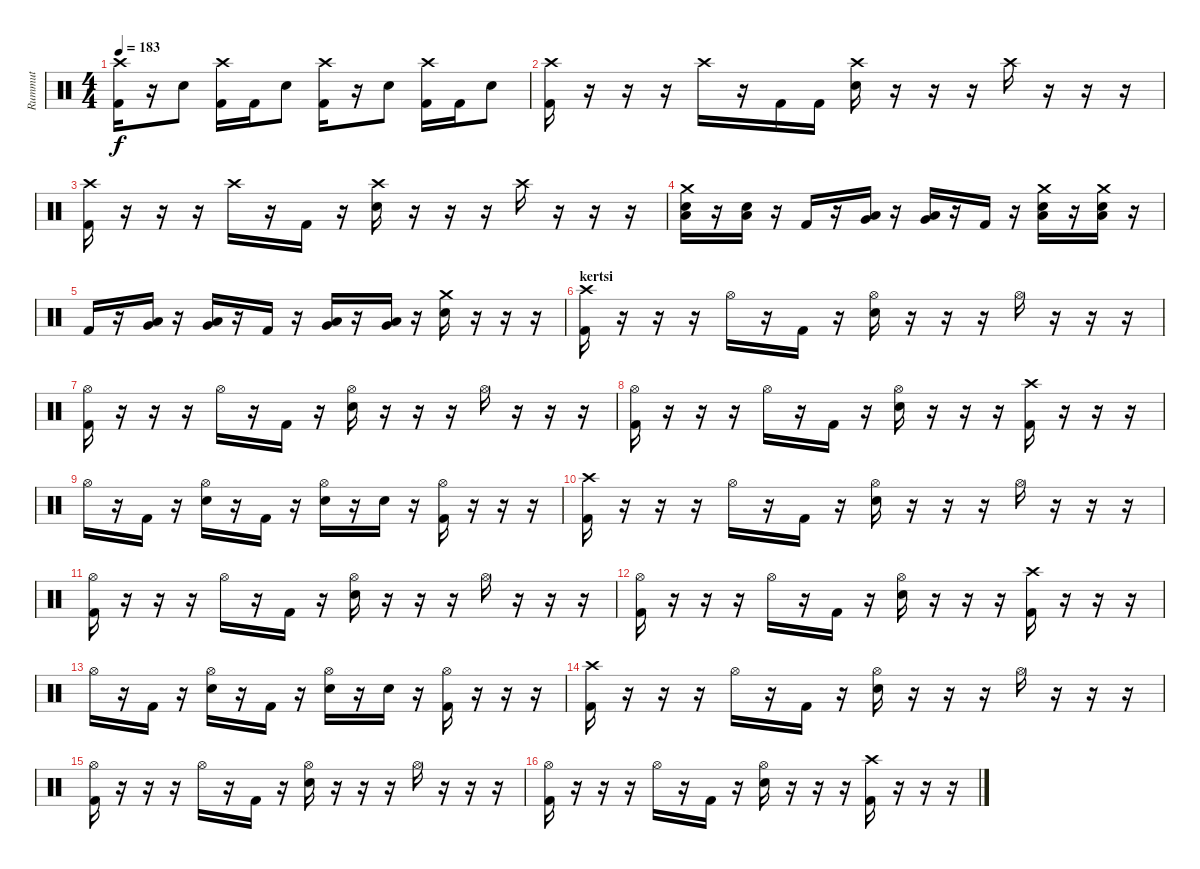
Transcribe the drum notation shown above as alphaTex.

\track ("Rummut" "Rummut") {instrument percussion}
\staff {score}
\articulation defaults
\ts (4 4)
\tempo 183
\clef neutral
\ks c
("Crash high (hit)" "Kick (hit) 2").16{dy f} r.16 "Electric Snare (hit)".8 ("Crash high (hit)" "Kick (hit) 2").16 "Kick (hit) 2".16 "Electric Snare (hit)".8 ("Crash high (hit)" "Kick (hit) 2").16 r.16 "Electric Snare (hit)".8 ("Crash high (hit)" "Kick (hit) 2").16 "Kick (hit) 2".16 "Electric Snare (hit)".8 |
("Crash high (hit)" "Kick (hit) 2").16 r.16 r.16 r.16 "Crash high (hit)".16 r.16 "Kick (hit) 2".16 "Kick (hit) 2".16 ("Crash high (hit)" "Electric Snare (hit)").16 r.16 r.16 r.16 "Crash high (hit)".16 r.16 r.16 r.16 |
("Crash high (hit)" "Kick (hit) 2").16 r.16 r.16 r.16 "Crash high (hit)".16 r.16 "Kick (hit) 2".16 r.16 ("Crash high (hit)" "Electric Snare (hit)").16 r.16 r.16 r.16 "Crash high (hit)".16 r.16 r.16 r.16 |
("Crash medium (hit)" "Low Tom (hit)" "Electric Snare (hit)").16 r.16 ("Low Tom (hit)" "Electric Snare (hit)").16 r.16 "Kick (hit) 2".16 r.16 ("Low Tom (hit)" "Very Low Tom (hit)").16 r.16 ("Low Tom (hit)" "Very Low Tom (hit)").16 r.16 "Kick (hit) 2".16 r.16 ("Crash medium (hit)" "Low Tom (hit)" "Electric Snare (hit)").16 r.16 ("Crash medium (hit)" "Low Tom (hit)" "Electric Snare (hit)").16 r.16 |
"Kick (hit) 2".16 r.16 ("Low Tom (hit)" "Very Low Tom (hit)").16 r.16 ("Low Tom (hit)" "Very Low Tom (hit)").16 r.16 "Kick (hit) 2".16 r.16 ("Very Low Tom (hit)" "Low Floor Tom (hit)").16 r.16 ("Very Low Tom (hit)" "Low Floor Tom (hit)").16 r.16 ("Crash medium (hit)" "Electric Snare (hit)").16 r.16 r.16 r.16 |
\section ("" "kertsi")
("Crash high (hit)" "Kick (hit) 2").16 r.16 r.16 r.16 "Hi-Hat (open)".16 r.16 "Kick (hit) 2".16 r.16 ("Hi-Hat (open)" "Electric Snare (hit)").16 r.16 r.16 r.16 "Hi-Hat (open)".16 r.16 r.16 r.16 |
("Hi-Hat (open)" "Kick (hit) 2").16 r.16 r.16 r.16 "Hi-Hat (open)".16 r.16 "Kick (hit) 2".16 r.16 ("Hi-Hat (open)" "Electric Snare (hit)").16 r.16 r.16 r.16 "Hi-Hat (open)".16 r.16 r.16 r.16 |
("Hi-Hat (open)" "Kick (hit) 2").16 r.16 r.16 r.16 "Hi-Hat (open)".16 r.16 "Kick (hit) 2".16 r.16 ("Hi-Hat (open)" "Electric Snare (hit)").16 r.16 r.16 r.16 ("Crash high (hit)" "Kick (hit) 2").16 r.16 r.16 r.16 |
"Hi-Hat (open)".16 r.16 "Kick (hit) 2".16 r.16 ("Hi-Hat (open)" "Electric Snare (hit)").16 r.16 "Kick (hit) 2".16 r.16 ("Hi-Hat (open)" "Electric Snare (hit)").16 r.16 "Electric Snare (hit)".16 r.16 ("Hi-Hat (open)" "Kick (hit) 2").16 r.16 r.16 r.16 |
("Crash high (hit)" "Kick (hit) 2").16 r.16 r.16 r.16 "Hi-Hat (open)".16 r.16 "Kick (hit) 2".16 r.16 ("Hi-Hat (open)" "Electric Snare (hit)").16 r.16 r.16 r.16 "Hi-Hat (open)".16 r.16 r.16 r.16 |
("Hi-Hat (open)" "Kick (hit) 2").16 r.16 r.16 r.16 "Hi-Hat (open)".16 r.16 "Kick (hit) 2".16 r.16 ("Hi-Hat (open)" "Electric Snare (hit)").16 r.16 r.16 r.16 "Hi-Hat (open)".16 r.16 r.16 r.16 |
("Hi-Hat (open)" "Kick (hit) 2").16 r.16 r.16 r.16 "Hi-Hat (open)".16 r.16 "Kick (hit) 2".16 r.16 ("Hi-Hat (open)" "Electric Snare (hit)").16 r.16 r.16 r.16 ("Crash high (hit)" "Kick (hit) 2").16 r.16 r.16 r.16 |
"Hi-Hat (open)".16 r.16 "Kick (hit) 2".16 r.16 ("Hi-Hat (open)" "Electric Snare (hit)").16 r.16 "Kick (hit) 2".16 r.16 ("Hi-Hat (open)" "Electric Snare (hit)").16 r.16 "Electric Snare (hit)".16 r.16 ("Hi-Hat (open)" "Kick (hit) 2").16 r.16 r.16 r.16 |
("Crash high (hit)" "Kick (hit) 2").16 r.16 r.16 r.16 "Hi-Hat (open)".16 r.16 "Kick (hit) 2".16 r.16 ("Hi-Hat (open)" "Electric Snare (hit)").16 r.16 r.16 r.16 "Hi-Hat (open)".16 r.16 r.16 r.16 |
("Hi-Hat (open)" "Kick (hit) 2").16 r.16 r.16 r.16 "Hi-Hat (open)".16 r.16 "Kick (hit) 2".16 r.16 ("Hi-Hat (open)" "Electric Snare (hit)").16 r.16 r.16 r.16 "Hi-Hat (open)".16 r.16 r.16 r.16 |
("Hi-Hat (open)" "Kick (hit) 2").16 r.16 r.16 r.16 "Hi-Hat (open)".16 r.16 "Kick (hit) 2".16 r.16 ("Hi-Hat (open)" "Electric Snare (hit)").16 r.16 r.16 r.16 ("Crash high (hit)" "Kick (hit) 2").16 r.16 r.16 r.16
